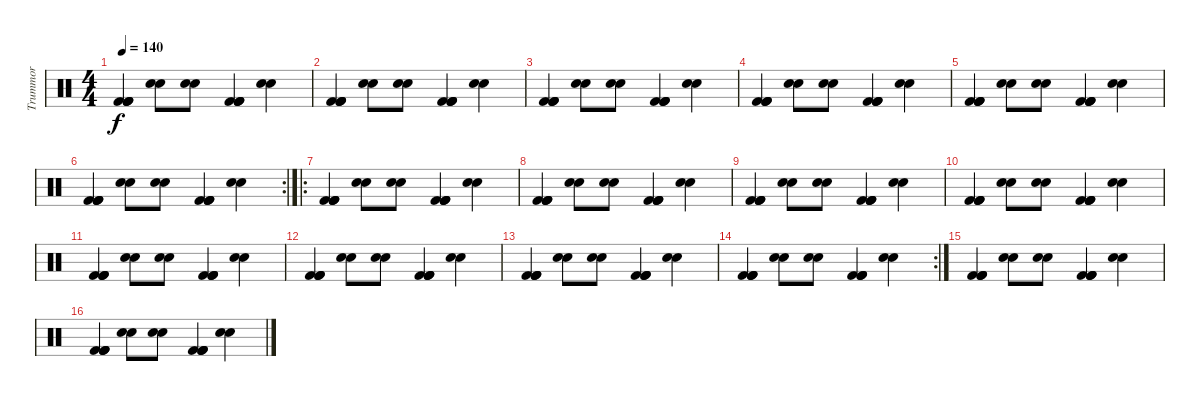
\track ("Trummor" "Trummor") {instrument percussion}
\staff {score}
\articulation defaults
\ts (4 4)
\tempo 140
\clef neutral
\ks c
("Kick (hit) 2" "Kick (hit) 2" "Kick (hit) 2" "Kick (hit) 2").4{dy f} ("Hand Clap (hit)" "Electric Snare (hit)").8 ("Hand Clap (hit)" "Electric Snare (hit)").8 ("Kick (hit) 2" "Kick (hit) 2" "Kick (hit) 2" "Kick (hit) 2").4 ("Hand Clap (hit)" "Electric Snare (hit)").4 |
("Kick (hit) 2" "Kick (hit) 2" "Kick (hit) 2" "Kick (hit) 2").4 ("Hand Clap (hit)" "Electric Snare (hit)").8 ("Hand Clap (hit)" "Electric Snare (hit)").8 ("Kick (hit) 2" "Kick (hit) 2" "Kick (hit) 2" "Kick (hit) 2").4 ("Hand Clap (hit)" "Electric Snare (hit)").4 |
("Kick (hit) 2" "Kick (hit) 2" "Kick (hit) 2" "Kick (hit) 2").4 ("Hand Clap (hit)" "Electric Snare (hit)").8 ("Hand Clap (hit)" "Electric Snare (hit)").8 ("Kick (hit) 2" "Kick (hit) 2" "Kick (hit) 2" "Kick (hit) 2").4 ("Hand Clap (hit)" "Electric Snare (hit)").4 |
("Kick (hit) 2" "Kick (hit) 2" "Kick (hit) 2" "Kick (hit) 2").4 ("Hand Clap (hit)" "Electric Snare (hit)").8 ("Hand Clap (hit)" "Electric Snare (hit)").8 ("Kick (hit) 2" "Kick (hit) 2" "Kick (hit) 2" "Kick (hit) 2").4 ("Hand Clap (hit)" "Electric Snare (hit)").4 |
("Kick (hit) 2" "Kick (hit) 2" "Kick (hit) 2" "Kick (hit) 2").4 ("Hand Clap (hit)" "Electric Snare (hit)").8 ("Hand Clap (hit)" "Electric Snare (hit)").8 ("Kick (hit) 2" "Kick (hit) 2" "Kick (hit) 2" "Kick (hit) 2").4 ("Hand Clap (hit)" "Electric Snare (hit)").4 |
\rc 2
("Kick (hit) 2" "Kick (hit) 2" "Kick (hit) 2" "Kick (hit) 2").4 ("Hand Clap (hit)" "Electric Snare (hit)").8 ("Hand Clap (hit)" "Electric Snare (hit)").8 ("Kick (hit) 2" "Kick (hit) 2" "Kick (hit) 2" "Kick (hit) 2").4 ("Hand Clap (hit)" "Electric Snare (hit)").4 |
\ro
("Kick (hit) 2" "Kick (hit) 2" "Kick (hit) 2" "Kick (hit) 2").4 ("Hand Clap (hit)" "Electric Snare (hit)").8 ("Hand Clap (hit)" "Electric Snare (hit)").8 ("Kick (hit) 2" "Kick (hit) 2" "Kick (hit) 2" "Kick (hit) 2").4 ("Hand Clap (hit)" "Electric Snare (hit)").4 |
("Kick (hit) 2" "Kick (hit) 2" "Kick (hit) 2" "Kick (hit) 2").4 ("Hand Clap (hit)" "Electric Snare (hit)").8 ("Hand Clap (hit)" "Electric Snare (hit)").8 ("Kick (hit) 2" "Kick (hit) 2" "Kick (hit) 2" "Kick (hit) 2").4 ("Hand Clap (hit)" "Electric Snare (hit)").4 |
("Kick (hit) 2" "Kick (hit) 2" "Kick (hit) 2" "Kick (hit) 2").4 ("Hand Clap (hit)" "Electric Snare (hit)").8 ("Hand Clap (hit)" "Electric Snare (hit)").8 ("Kick (hit) 2" "Kick (hit) 2" "Kick (hit) 2" "Kick (hit) 2").4 ("Hand Clap (hit)" "Electric Snare (hit)").4 |
("Kick (hit) 2" "Kick (hit) 2" "Kick (hit) 2" "Kick (hit) 2").4 ("Hand Clap (hit)" "Electric Snare (hit)").8 ("Hand Clap (hit)" "Electric Snare (hit)").8 ("Kick (hit) 2" "Kick (hit) 2" "Kick (hit) 2" "Kick (hit) 2").4 ("Hand Clap (hit)" "Electric Snare (hit)").4 |
("Kick (hit) 2" "Kick (hit) 2" "Kick (hit) 2" "Kick (hit) 2").4 ("Hand Clap (hit)" "Electric Snare (hit)").8 ("Hand Clap (hit)" "Electric Snare (hit)").8 ("Kick (hit) 2" "Kick (hit) 2" "Kick (hit) 2" "Kick (hit) 2").4 ("Hand Clap (hit)" "Electric Snare (hit)").4 |
("Kick (hit) 2" "Kick (hit) 2" "Kick (hit) 2" "Kick (hit) 2").4 ("Hand Clap (hit)" "Electric Snare (hit)").8 ("Hand Clap (hit)" "Electric Snare (hit)").8 ("Kick (hit) 2" "Kick (hit) 2" "Kick (hit) 2" "Kick (hit) 2").4 ("Hand Clap (hit)" "Electric Snare (hit)").4 |
("Kick (hit) 2" "Kick (hit) 2" "Kick (hit) 2" "Kick (hit) 2").4 ("Hand Clap (hit)" "Electric Snare (hit)").8 ("Hand Clap (hit)" "Electric Snare (hit)").8 ("Kick (hit) 2" "Kick (hit) 2" "Kick (hit) 2" "Kick (hit) 2").4 ("Hand Clap (hit)" "Electric Snare (hit)").4 |
\rc 2
("Kick (hit) 2" "Kick (hit) 2" "Kick (hit) 2" "Kick (hit) 2").4 ("Hand Clap (hit)" "Electric Snare (hit)").8 ("Hand Clap (hit)" "Electric Snare (hit)").8 ("Kick (hit) 2" "Kick (hit) 2" "Kick (hit) 2" "Kick (hit) 2").4 ("Hand Clap (hit)" "Electric Snare (hit)").4 |
("Kick (hit) 2" "Kick (hit) 2" "Kick (hit) 2" "Kick (hit) 2").4 ("Hand Clap (hit)" "Electric Snare (hit)").8 ("Hand Clap (hit)" "Electric Snare (hit)").8 ("Kick (hit) 2" "Kick (hit) 2" "Kick (hit) 2" "Kick (hit) 2").4 ("Hand Clap (hit)" "Electric Snare (hit)").4 |
("Kick (hit) 2" "Kick (hit) 2" "Kick (hit) 2" "Kick (hit) 2").4 ("Hand Clap (hit)" "Electric Snare (hit)").8 ("Hand Clap (hit)" "Electric Snare (hit)").8 ("Kick (hit) 2" "Kick (hit) 2" "Kick (hit) 2" "Kick (hit) 2").4 ("Hand Clap (hit)" "Electric Snare (hit)").4
